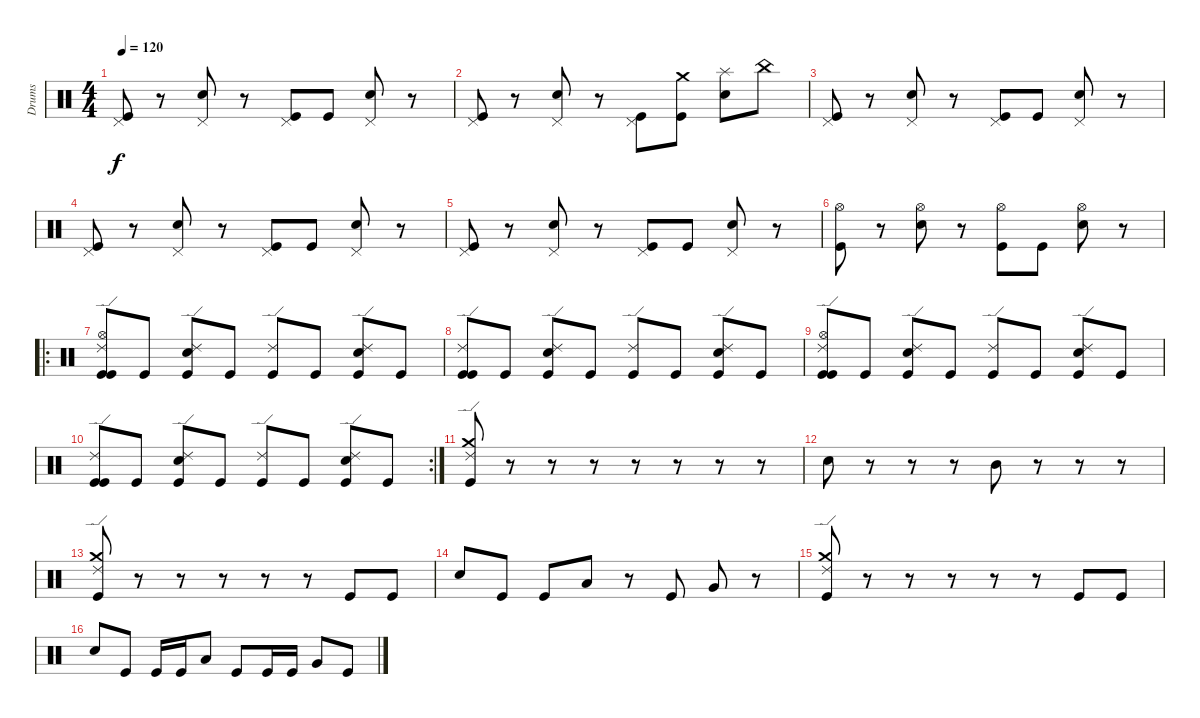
\track ("Drums" "Drums") {instrument percussion}
\staff {score}
\articulation defaults
\ts (4 4)
\tempo 120
\clef neutral
\ks c
("Pedal Hi-Hat (hit)" "Kick (hit)").8{dy f} r.8 ("Pedal Hi-Hat (hit)" "Snare (hit) 2").8 r.8 ("Pedal Hi-Hat (hit)" "Kick (hit)").8 "Kick (hit)".8 ("Pedal Hi-Hat (hit)" "Snare (hit) 2").8 r.8 |
("Pedal Hi-Hat (hit)" "Kick (hit)").8 r.8 ("Pedal Hi-Hat (hit)" "Snare (hit) 2").8 r.8 ("Pedal Hi-Hat (hit)" "Kick (hit)").8 ("Crash medium (hit)" "Kick (hit)").8 ("Splash (hit)" "Snare (hit) 2").8 "China (hit)".8 |
("Pedal Hi-Hat (hit)" "Kick (hit)").8 r.8 ("Pedal Hi-Hat (hit)" "Snare (hit) 2").8 r.8 ("Pedal Hi-Hat (hit)" "Kick (hit)").8 "Kick (hit)".8 ("Pedal Hi-Hat (hit)" "Snare (hit) 2").8 r.8 |
("Pedal Hi-Hat (hit)" "Kick (hit)").8 r.8 ("Pedal Hi-Hat (hit)" "Snare (hit) 2").8 r.8 ("Pedal Hi-Hat (hit)" "Kick (hit)").8 "Kick (hit)".8 ("Pedal Hi-Hat (hit)" "Snare (hit) 2").8 r.8 |
("Pedal Hi-Hat (hit)" "Kick (hit)").8 r.8 ("Pedal Hi-Hat (hit)" "Snare (hit) 2").8 r.8 ("Pedal Hi-Hat (hit)" "Kick (hit)").8 "Kick (hit)".8 ("Pedal Hi-Hat (hit)" "Snare (hit) 2").8 r.8 |
("Hi-Hat (open)" "Kick (hit)").8 r.8 ("Hi-Hat (open)" "Snare (hit) 2").8 r.8 ("Hi-Hat (open)" "Kick (hit)").8 "Kick (hit)".8 ("Hi-Hat (open)" "Snare (hit) 2").8 r.8 |
\ro
("Hi-Hat (open)" "Ride (edge) 2" "Kick (hit)" "Kick (hit)").8 "Kick (hit)".8 ("Ride (edge) 2" "Snare (hit) 2" "Kick (hit)").8 "Kick (hit)".8 ("Ride (edge) 2" "Kick (hit)").8 "Kick (hit)".8 ("Ride (edge) 2" "Snare (hit) 2" "Kick (hit)").8 "Kick (hit)".8 |
("Ride (edge) 2" "Kick (hit)" "Kick (hit)").8 "Kick (hit)".8 ("Ride (edge) 2" "Snare (hit) 2" "Kick (hit)").8 "Kick (hit)".8 ("Ride (edge) 2" "Kick (hit)").8 "Kick (hit)".8 ("Ride (edge) 2" "Snare (hit) 2" "Kick (hit)").8 "Kick (hit)".8 |
("Hi-Hat (open)" "Ride (edge) 2" "Kick (hit)" "Kick (hit)").8 "Kick (hit)".8 ("Ride (edge) 2" "Snare (hit) 2" "Kick (hit)").8 "Kick (hit)".8 ("Ride (edge) 2" "Kick (hit)").8 "Kick (hit)".8 ("Ride (edge) 2" "Snare (hit) 2" "Kick (hit)").8 "Kick (hit)".8 |
\rc 2
("Ride (edge) 2" "Kick (hit)" "Kick (hit)").8 "Kick (hit)".8 ("Ride (edge) 2" "Snare (hit) 2" "Kick (hit)").8 "Kick (hit)".8 ("Ride (edge) 2" "Kick (hit)").8 "Kick (hit)".8 ("Ride (edge) 2" "Snare (hit) 2" "Kick (hit)").8 "Kick (hit)".8 |
("Crash medium (hit)" "Ride (edge) 2" "Kick (hit)").8 r.8 r.8 r.8 r.8 r.8 r.8 r.8 |
"Snare (hit) 2".8 r.8 r.8 r.8 "Mid Tom (hit)".8 r.8 r.8 r.8 |
("Crash medium (hit)" "Ride (edge) 2" "Kick (hit)").8 r.8 r.8 r.8 r.8 r.8 "Kick (hit)".8 "Kick (hit)".8 |
"Snare (hit) 2".8 "Kick (hit)".8 "Kick (hit)".8 "Low Tom (hit)".8 r.8 "Kick (hit)".8 "Very Low Tom (hit)".8 r.8 |
("Crash medium (hit)" "Ride (edge) 2" "Kick (hit)").8 r.8 r.8 r.8 r.8 r.8 "Kick (hit)".8 "Kick (hit)".8 |
"Snare (hit) 2".8 "Kick (hit)".8 "Kick (hit)".16 "Kick (hit)".16 "Low Tom (hit)".8 "Kick (hit)".8 "Kick (hit)".16 "Kick (hit)".16 "Very Low Tom (hit)".8 "Kick (hit)".8
